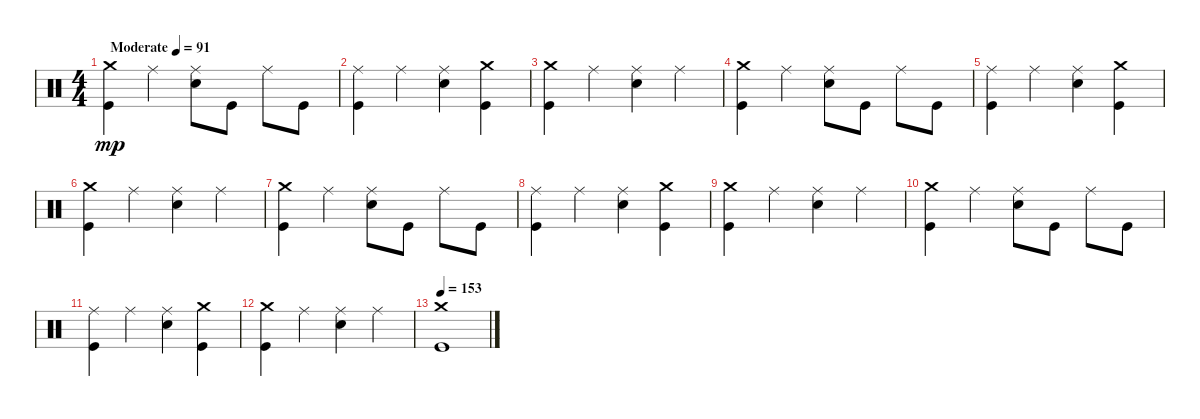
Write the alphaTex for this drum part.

\track "" {instrument percussion}
\staff {score}
\articulation defaults
\ts (4 4)
\tempo (91 "Moderate")
\clef neutral
\ks c
("Kick (hit)" "Crash medium (hit)").4{dy mp} "Ride (middle)".4 ("Snare (hit) 2" "Ride (middle)").8 "Kick (hit)".8 "Ride (middle)".8 "Kick (hit)".8 |
("Kick (hit)" "Ride (middle)").4 "Ride (middle)".4 ("Snare (hit) 2" "Ride (middle)").4 ("Crash medium (hit)" "Kick (hit)").4 |
("Kick (hit)" "Crash medium (hit)").4 "Ride (middle)".4 ("Ride (middle)" "Snare (hit) 2").4 "Ride (middle)".4 |
("Kick (hit)" "Crash medium (hit)").4 "Ride (middle)".4 ("Snare (hit) 2" "Ride (middle)").8 "Kick (hit)".8 "Ride (middle)".8 "Kick (hit)".8 |
("Kick (hit)" "Ride (middle)").4 "Ride (middle)".4 ("Snare (hit) 2" "Ride (middle)").4 ("Crash medium (hit)" "Kick (hit)").4 |
("Kick (hit)" "Crash medium (hit)").4 "Ride (middle)".4 ("Ride (middle)" "Snare (hit) 2").4 "Ride (middle)".4 |
("Kick (hit)" "Crash medium (hit)").4 "Ride (middle)".4 ("Snare (hit) 2" "Ride (middle)").8 "Kick (hit)".8 "Ride (middle)".8 "Kick (hit)".8 |
("Kick (hit)" "Ride (middle)").4 "Ride (middle)".4 ("Snare (hit) 2" "Ride (middle)").4 ("Crash medium (hit)" "Kick (hit)").4 |
("Kick (hit)" "Crash medium (hit)").4 "Ride (middle)".4 ("Ride (middle)" "Snare (hit) 2").4 "Ride (middle)".4 |
("Kick (hit)" "Crash medium (hit)").4 "Ride (middle)".4 ("Snare (hit) 2" "Ride (middle)").8 "Kick (hit)".8 "Ride (middle)".8 "Kick (hit)".8 |
("Kick (hit)" "Ride (middle)").4 "Ride (middle)".4 ("Snare (hit) 2" "Ride (middle)").4 ("Crash medium (hit)" "Kick (hit)").4 |
("Kick (hit)" "Crash medium (hit)").4 "Ride (middle)".4 ("Ride (middle)" "Snare (hit) 2").4 "Ride (middle)".4 |
\tempo 153
("Crash medium (hit)" "Kick (hit)").1
